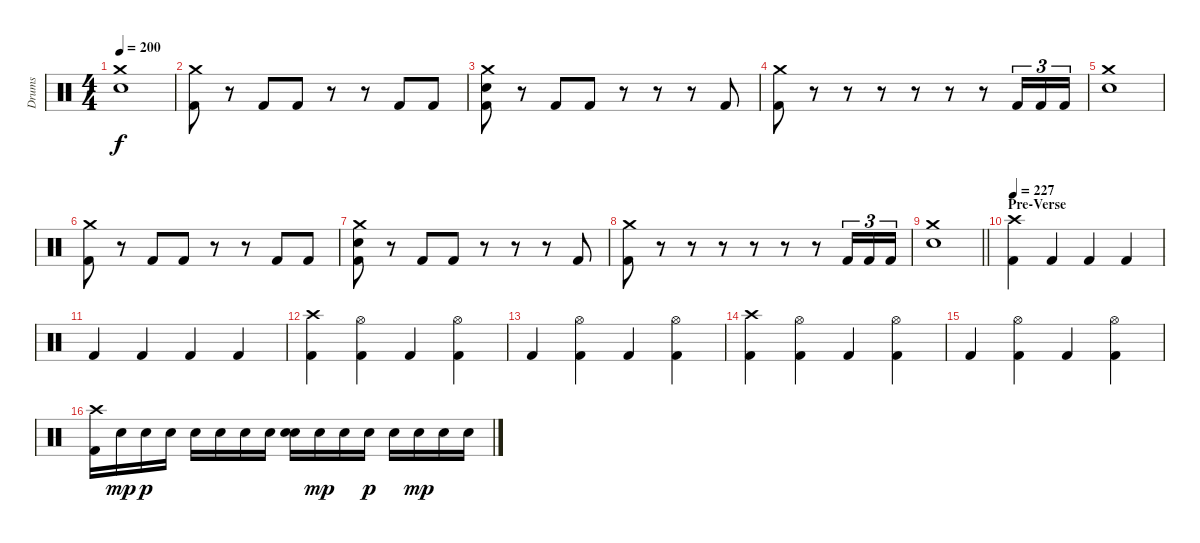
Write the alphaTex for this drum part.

\track ("Drums" "Drums") {instrument percussion}
\staff {score}
\articulation defaults
\ts (4 4)
\tempo 200
\clef neutral
\ks c
("Crash medium (hit)" "Electric Snare (hit)").1{dy f} |
("Crash medium (hit)" "Kick (hit) 2").8 r.8 "Kick (hit) 2".8 "Kick (hit) 2".8 r.8 r.8 "Kick (hit) 2".8 "Kick (hit) 2".8 |
("Crash medium (hit)" "Electric Snare (hit)" "Kick (hit) 2").8 r.8 "Kick (hit) 2".8 "Kick (hit) 2".8 r.8 r.8 r.8 "Kick (hit) 2".8 |
("Crash medium (hit)" "Kick (hit) 2").8 r.8 r.8 r.8 r.8 r.8 r.8 "Kick (hit) 2".16{tu (3 2)} "Kick (hit) 2".16{tu (3 2)} "Kick (hit) 2".16{tu (3 2)} |
("Crash medium (hit)" "Electric Snare (hit)").1 |
("Crash medium (hit)" "Kick (hit) 2").8 r.8 "Kick (hit) 2".8 "Kick (hit) 2".8 r.8 r.8 "Kick (hit) 2".8 "Kick (hit) 2".8 |
("Crash medium (hit)" "Electric Snare (hit)" "Kick (hit) 2").8 r.8 "Kick (hit) 2".8 "Kick (hit) 2".8 r.8 r.8 r.8 "Kick (hit) 2".8 |
("Crash medium (hit)" "Kick (hit) 2").8 r.8 r.8 r.8 r.8 r.8 r.8 "Kick (hit) 2".16{tu (3 2)} "Kick (hit) 2".16{tu (3 2)} "Kick (hit) 2".16{tu (3 2)} |
\barLineRight lightlight
("Crash medium (hit)" "Electric Snare (hit)").1 |
\section ("" "Pre-Verse")
\tempo 227
("Crash high (hit)" "Kick (hit) 2").4 "Kick (hit) 2".4 "Kick (hit) 2".4 "Kick (hit) 2".4 |
"Kick (hit) 2".4 "Kick (hit) 2".4 "Kick (hit) 2".4 "Kick (hit) 2".4 |
("Crash high (hit)" "Kick (hit) 2").4 ("Hi-Hat (open)" "Kick (hit) 2").4 "Kick (hit) 2".4 ("Hi-Hat (open)" "Kick (hit) 2").4 |
"Kick (hit) 2".4 ("Hi-Hat (open)" "Kick (hit) 2").4 "Kick (hit) 2".4 ("Hi-Hat (open)" "Kick (hit) 2").4 |
("Crash high (hit)" "Kick (hit) 2").4 ("Hi-Hat (open)" "Kick (hit) 2").4 "Kick (hit) 2".4 ("Hi-Hat (open)" "Kick (hit) 2").4 |
"Kick (hit) 2".4 ("Hi-Hat (open)" "Kick (hit) 2").4 "Kick (hit) 2".4 ("Hi-Hat (open)" "Kick (hit) 2").4 |
("Crash high (hit)" "Kick (hit) 2").16 "Snare (hit) 2".16{dy mp} "Snare (hit) 2".16{dy p} "Snare (hit) 2".16 "Snare (hit) 2".16 "Snare (hit) 2".16 "Snare (hit) 2".16 "Snare (hit) 2".16 ("Electric Snare (hit)" "Snare (hit) 2").16 "Snare (hit) 2".16{dy mp} "Snare (hit) 2".16 "Snare (hit) 2".16{dy p} "Snare (hit) 2".16 "Snare (hit) 2".16{dy mp} "Snare (hit) 2".16 "Snare (hit) 2".16
